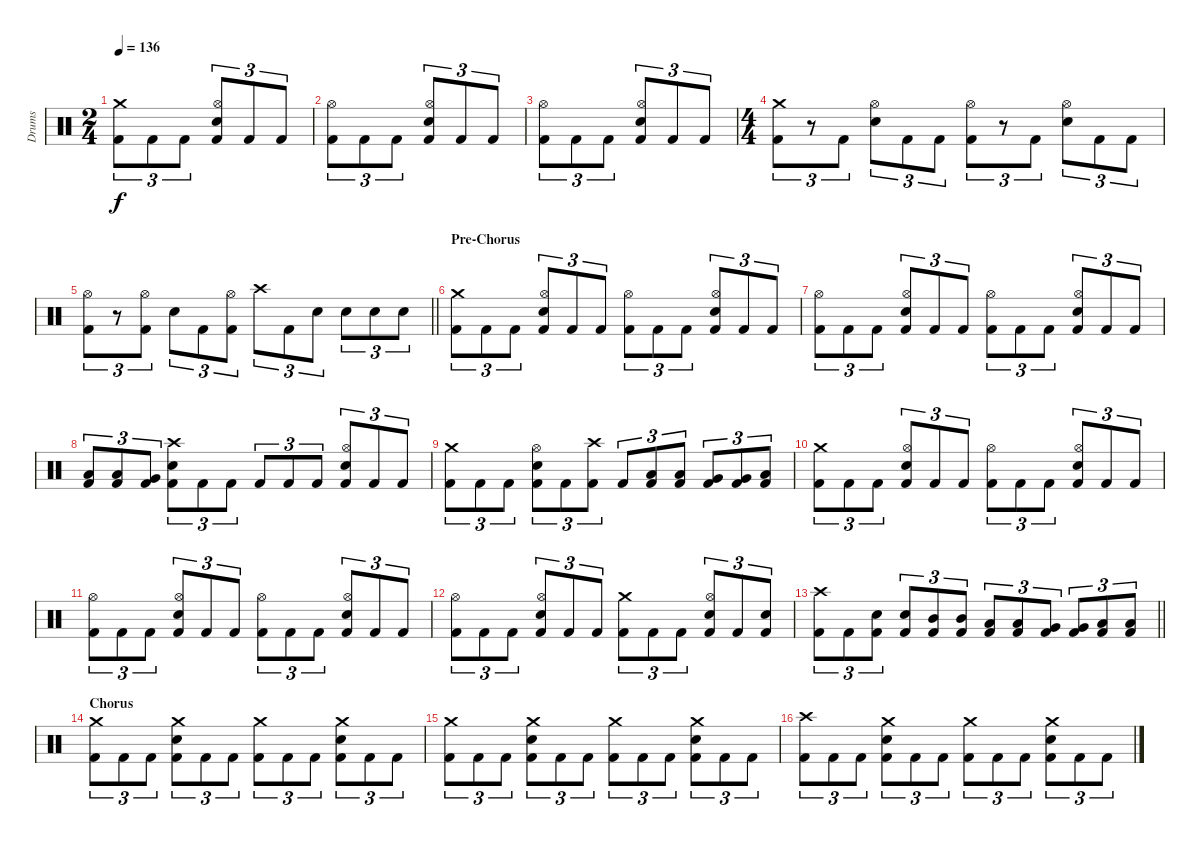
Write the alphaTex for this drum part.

\track ("Drums" "Drums") {instrument percussion}
\staff {score}
\articulation defaults
\ts (2 4)
\tempo 136
\clef neutral
\ks c
("Crash medium (hit)" "Kick (hit) 2").8{tu (3 2) dy f} "Kick (hit) 2".8{tu (3 2)} "Kick (hit) 2".8{tu (3 2)} ("Hi-Hat (open)" "Electric Snare (hit)" "Kick (hit) 2").8{tu (3 2)} "Kick (hit) 2".8{tu (3 2)} "Kick (hit) 2".8{tu (3 2)} |
("Hi-Hat (open)" "Kick (hit) 2").8{tu (3 2)} "Kick (hit) 2".8{tu (3 2)} "Kick (hit) 2".8{tu (3 2)} ("Hi-Hat (open)" "Electric Snare (hit)" "Kick (hit) 2").8{tu (3 2)} "Kick (hit) 2".8{tu (3 2)} "Kick (hit) 2".8{tu (3 2)} |
("Hi-Hat (open)" "Kick (hit) 2").8{tu (3 2)} "Kick (hit) 2".8{tu (3 2)} "Kick (hit) 2".8{tu (3 2)} ("Hi-Hat (open)" "Electric Snare (hit)" "Kick (hit) 2").8{tu (3 2)} "Kick (hit) 2".8{tu (3 2)} "Kick (hit) 2".8{tu (3 2)} |
\ts (4 4)
("Crash medium (hit)" "Kick (hit) 2").8{tu (3 2)} r.8{tu (3 2)} "Kick (hit) 2".8{tu (3 2)} ("Hi-Hat (open)" "Electric Snare (hit)").8{tu (3 2)} "Kick (hit) 2".8{tu (3 2)} "Kick (hit) 2".8{tu (3 2)} ("Hi-Hat (open)" "Kick (hit) 2").8{tu (3 2)} r.8{tu (3 2)} "Kick (hit) 2".8{tu (3 2)} ("Hi-Hat (open)" "Electric Snare (hit)").8{tu (3 2)} "Kick (hit) 2".8{tu (3 2)} "Kick (hit) 2".8{tu (3 2)} |
\barLineRight lightlight
("Hi-Hat (open)" "Kick (hit) 2").8{tu (3 2)} r.8{tu (3 2)} ("Hi-Hat (open)" "Kick (hit) 2").8{tu (3 2)} "Electric Snare (hit)".8{tu (3 2)} "Kick (hit) 2".8{tu (3 2)} ("Hi-Hat (open)" "Kick (hit) 2").8{tu (3 2)} "Crash high (hit)".8{tu (3 2)} "Kick (hit) 2".8{tu (3 2)} "Electric Snare (hit)".8{tu (3 2)} "Electric Snare (hit)".8{tu (3 2)} "Electric Snare (hit)".8{tu (3 2)} "Electric Snare (hit)".8{tu (3 2)} |
\section ("" "Pre-Chorus")
("Crash medium (hit)" "Kick (hit) 2").8{tu (3 2)} "Kick (hit) 2".8{tu (3 2)} "Kick (hit) 2".8{tu (3 2)} ("Hi-Hat (open)" "Electric Snare (hit)" "Kick (hit) 2").8{tu (3 2)} "Kick (hit) 2".8{tu (3 2)} "Kick (hit) 2".8{tu (3 2)} ("Hi-Hat (open)" "Kick (hit) 2").8{tu (3 2)} "Kick (hit) 2".8{tu (3 2)} "Kick (hit) 2".8{tu (3 2)} ("Hi-Hat (open)" "Electric Snare (hit)" "Kick (hit) 2").8{tu (3 2)} "Kick (hit) 2".8{tu (3 2)} "Kick (hit) 2".8{tu (3 2)} |
("Hi-Hat (open)" "Kick (hit) 2").8{tu (3 2)} "Kick (hit) 2".8{tu (3 2)} "Kick (hit) 2".8{tu (3 2)} ("Hi-Hat (open)" "Electric Snare (hit)" "Kick (hit) 2").8{tu (3 2)} "Kick (hit) 2".8{tu (3 2)} "Kick (hit) 2".8{tu (3 2)} ("Hi-Hat (open)" "Kick (hit) 2").8{tu (3 2)} "Kick (hit) 2".8{tu (3 2)} "Kick (hit) 2".8{tu (3 2)} ("Hi-Hat (open)" "Electric Snare (hit)" "Kick (hit) 2").8{tu (3 2)} "Kick (hit) 2".8{tu (3 2)} "Kick (hit) 2".8{tu (3 2)} |
("Low Tom (hit)" "Kick (hit) 2").8{tu (3 2)} ("Low Tom (hit)" "Kick (hit) 2").8{tu (3 2)} ("Very Low Tom (hit)" "Kick (hit) 2").8{tu (3 2)} ("Crash high (hit)" "Electric Snare (hit)" "Kick (hit) 2").8{tu (3 2)} "Kick (hit) 2".8{tu (3 2)} "Kick (hit) 2".8{tu (3 2)} "Kick (hit) 2".8{tu (3 2)} "Kick (hit) 2".8{tu (3 2)} "Kick (hit) 2".8{tu (3 2)} ("Hi-Hat (open)" "Electric Snare (hit)" "Kick (hit) 2").8{tu (3 2)} "Kick (hit) 2".8{tu (3 2)} "Kick (hit) 2".8{tu (3 2)} |
("Crash medium (hit)" "Kick (hit) 2").8{tu (3 2)} "Kick (hit) 2".8{tu (3 2)} "Kick (hit) 2".8{tu (3 2)} ("Hi-Hat (open)" "Electric Snare (hit)" "Kick (hit) 2").8{tu (3 2)} "Kick (hit) 2".8{tu (3 2)} ("Crash high (hit)" "Kick (hit) 2").8{tu (3 2)} "Kick (hit) 2".8{tu (3 2)} ("Low Tom (hit)" "Kick (hit) 2").8{tu (3 2)} ("Low Tom (hit)" "Kick (hit) 2").8{tu (3 2)} ("Very Low Tom (hit)" "Kick (hit) 2").8{tu (3 2)} ("Very Low Tom (hit)" "Kick (hit) 2").8{tu (3 2)} ("Low Floor Tom (hit)" "Kick (hit) 2").8{tu (3 2)} |
("Crash medium (hit)" "Kick (hit) 2").8{tu (3 2)} "Kick (hit) 2".8{tu (3 2)} "Kick (hit) 2".8{tu (3 2)} ("Hi-Hat (open)" "Electric Snare (hit)" "Kick (hit) 2").8{tu (3 2)} "Kick (hit) 2".8{tu (3 2)} "Kick (hit) 2".8{tu (3 2)} ("Hi-Hat (open)" "Kick (hit) 2").8{tu (3 2)} "Kick (hit) 2".8{tu (3 2)} "Kick (hit) 2".8{tu (3 2)} ("Hi-Hat (open)" "Electric Snare (hit)" "Kick (hit) 2").8{tu (3 2)} "Kick (hit) 2".8{tu (3 2)} "Kick (hit) 2".8{tu (3 2)} |
("Hi-Hat (open)" "Kick (hit) 2").8{tu (3 2)} "Kick (hit) 2".8{tu (3 2)} "Kick (hit) 2".8{tu (3 2)} ("Hi-Hat (open)" "Electric Snare (hit)" "Kick (hit) 2").8{tu (3 2)} "Kick (hit) 2".8{tu (3 2)} "Kick (hit) 2".8{tu (3 2)} ("Hi-Hat (open)" "Kick (hit) 2").8{tu (3 2)} "Kick (hit) 2".8{tu (3 2)} "Kick (hit) 2".8{tu (3 2)} ("Hi-Hat (open)" "Electric Snare (hit)" "Kick (hit) 2").8{tu (3 2)} "Kick (hit) 2".8{tu (3 2)} "Kick (hit) 2".8{tu (3 2)} |
("Hi-Hat (open)" "Kick (hit) 2").8{tu (3 2)} "Kick (hit) 2".8{tu (3 2)} "Kick (hit) 2".8{tu (3 2)} ("Hi-Hat (open)" "Electric Snare (hit)" "Kick (hit) 2").8{tu (3 2)} "Kick (hit) 2".8{tu (3 2)} "Kick (hit) 2".8{tu (3 2)} ("Crash medium (hit)" "Kick (hit) 2").8{tu (3 2)} "Kick (hit) 2".8{tu (3 2)} "Kick (hit) 2".8{tu (3 2)} ("Hi-Hat (open)" "Electric Snare (hit)" "Kick (hit) 2").8{tu (3 2)} "Kick (hit) 2".8{tu (3 2)} ("Electric Snare (hit)" "Kick (hit) 2").8{tu (3 2)} |
\barLineRight lightlight
("Crash high (hit)" "Kick (hit) 2").8{tu (3 2)} "Kick (hit) 2".8{tu (3 2)} ("Electric Snare (hit)" "Kick (hit) 2").8{tu (3 2)} ("Electric Snare (hit)" "Kick (hit) 2").8{tu (3 2)} ("Mid Tom (hit)" "Kick (hit) 2").8{tu (3 2)} ("Mid Tom (hit)" "Kick (hit) 2").8{tu (3 2)} ("Low Tom (hit)" "Kick (hit) 2").8{tu (3 2)} ("Low Tom (hit)" "Kick (hit) 2").8{tu (3 2)} ("Very Low Tom (hit)" "Kick (hit) 2").8{tu (3 2)} ("Very Low Tom (hit)" "Kick (hit) 2").8{tu (3 2)} ("Low Floor Tom (hit)" "Kick (hit) 2").8{tu (3 2)} ("Low Floor Tom (hit)" "Kick (hit) 2").8{tu (3 2)} |
\section ("" "Chorus")
("Crash medium (hit)" "Kick (hit) 2").8{tu (3 2)} "Kick (hit) 2".8{tu (3 2)} "Kick (hit) 2".8{tu (3 2)} ("Crash medium (hit)" "Electric Snare (hit)" "Kick (hit) 2").8{tu (3 2)} "Kick (hit) 2".8{tu (3 2)} "Kick (hit) 2".8{tu (3 2)} ("Crash medium (hit)" "Kick (hit) 2").8{tu (3 2)} "Kick (hit) 2".8{tu (3 2)} "Kick (hit) 2".8{tu (3 2)} ("Crash medium (hit)" "Electric Snare (hit)" "Kick (hit) 2").8{tu (3 2)} "Kick (hit) 2".8{tu (3 2)} "Kick (hit) 2".8{tu (3 2)} |
("Crash medium (hit)" "Kick (hit) 2").8{tu (3 2)} "Kick (hit) 2".8{tu (3 2)} "Kick (hit) 2".8{tu (3 2)} ("Crash medium (hit)" "Electric Snare (hit)" "Kick (hit) 2").8{tu (3 2)} "Kick (hit) 2".8{tu (3 2)} "Kick (hit) 2".8{tu (3 2)} ("Crash medium (hit)" "Kick (hit) 2").8{tu (3 2)} "Kick (hit) 2".8{tu (3 2)} "Kick (hit) 2".8{tu (3 2)} ("Crash medium (hit)" "Electric Snare (hit)" "Kick (hit) 2").8{tu (3 2)} "Kick (hit) 2".8{tu (3 2)} "Kick (hit) 2".8{tu (3 2)} |
("Crash high (hit)" "Kick (hit) 2").8{tu (3 2)} "Kick (hit) 2".8{tu (3 2)} "Kick (hit) 2".8{tu (3 2)} ("Crash medium (hit)" "Electric Snare (hit)" "Kick (hit) 2").8{tu (3 2)} "Kick (hit) 2".8{tu (3 2)} "Kick (hit) 2".8{tu (3 2)} ("Crash medium (hit)" "Kick (hit) 2").8{tu (3 2)} "Kick (hit) 2".8{tu (3 2)} "Kick (hit) 2".8{tu (3 2)} ("Crash medium (hit)" "Electric Snare (hit)" "Kick (hit) 2").8{tu (3 2)} "Kick (hit) 2".8{tu (3 2)} "Kick (hit) 2".8{tu (3 2)}
